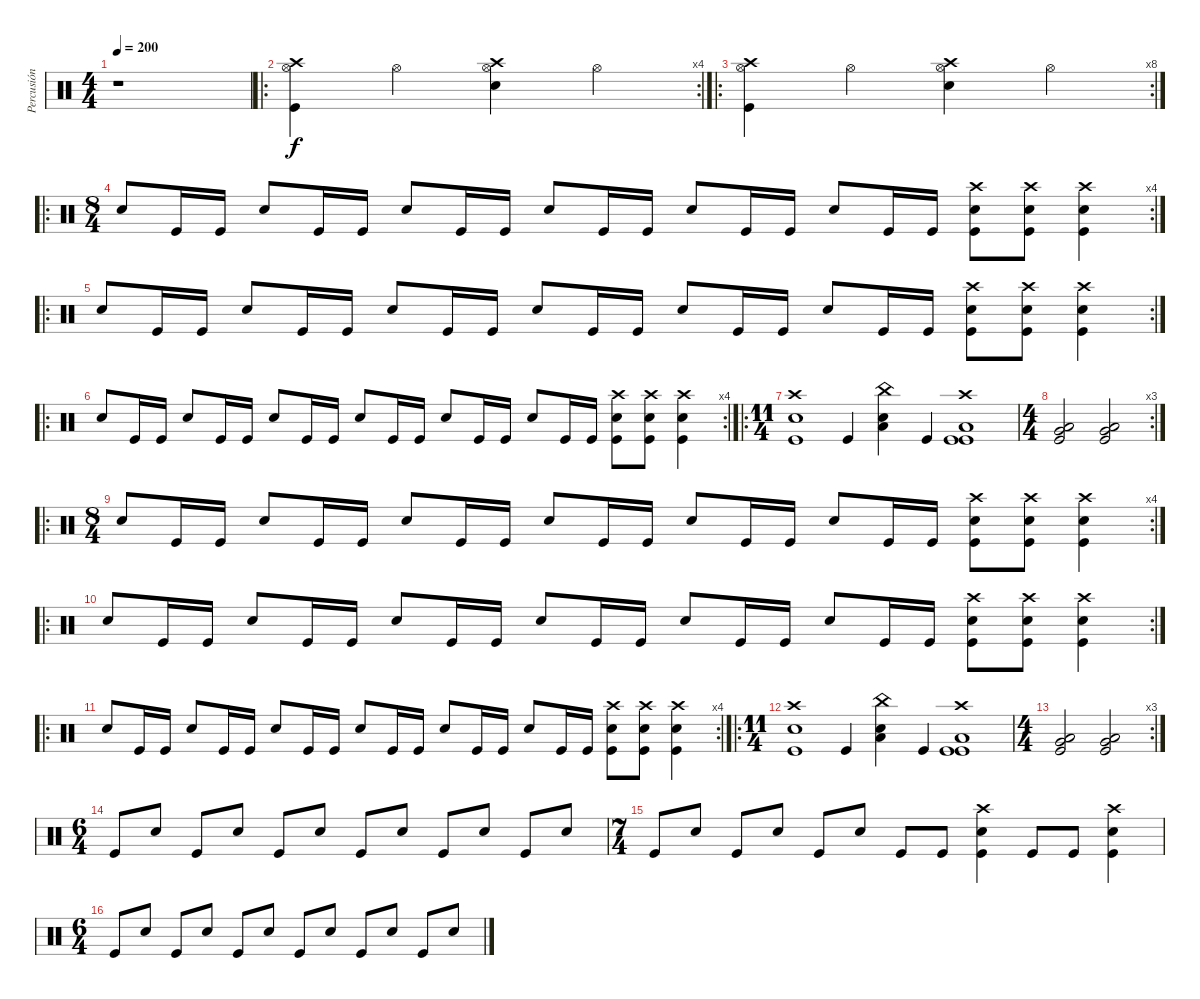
\track ("Percusión" "Percusión") {instrument percussion}
\staff {score}
\articulation defaults
\ts (4 4)
\tempo 200
\clef neutral
\ks c
r.1{dy f} |
\ro
\rc 4
("Crash high (hit)" "Hi-Hat (open)" "Kick (hit)").4 "Hi-Hat (open)".4 ("Crash high (hit)" "Hi-Hat (open)" "Snare (hit) 2").4 "Hi-Hat (open)".4 |
\ro
\rc 8
("Crash high (hit)" "Hi-Hat (open)" "Kick (hit)").4 "Hi-Hat (open)".4 ("Crash high (hit)" "Hi-Hat (open)" "Snare (hit) 2").4 "Hi-Hat (open)".4 |
\ro
\rc 4
\ts (8 4)
"Snare (hit) 2".8 "Kick (hit)".16 "Kick (hit)".16 "Snare (hit) 2".8 "Kick (hit)".16 "Kick (hit)".16 "Snare (hit) 2".8 "Kick (hit)".16 "Kick (hit)".16 "Snare (hit) 2".8 "Kick (hit)".16 "Kick (hit)".16 "Snare (hit) 2".8 "Kick (hit)".16 "Kick (hit)".16 "Snare (hit) 2".8 "Kick (hit)".16 "Kick (hit)".16 ("Crash high (hit)" "Snare (hit) 2" "Kick (hit)").8 ("Crash high (hit)" "Snare (hit) 2" "Kick (hit)").8 ("Crash high (hit)" "Snare (hit) 2" "Kick (hit)").4 |
\ro
\rc 2 "Snare (hit) 2".8 "Kick (hit)".16 "Kick (hit)".16 "Snare (hit) 2".8 "Kick (hit)".16 "Kick (hit)".16 "Snare (hit) 2".8 "Kick (hit)".16 "Kick (hit)".16 "Snare (hit) 2".8 "Kick (hit)".16 "Kick (hit)".16 "Snare (hit) 2".8 "Kick (hit)".16 "Kick (hit)".16 "Snare (hit) 2".8 "Kick (hit)".16 "Kick (hit)".16
("Crash high (hit)" "Snare (hit) 2" "Kick (hit)").8 ("Crash high (hit)" "Snare (hit) 2" "Kick (hit)").8 ("Crash high (hit)" "Snare (hit) 2" "Kick (hit)").4 |
\ro
\rc 4 "Snare (hit) 2".8 "Kick (hit)".16 "Kick (hit)".16 "Snare (hit) 2".8 "Kick (hit)".16 "Kick (hit)".16 "Snare (hit) 2".8 "Kick (hit)".16 "Kick (hit)".16 "Snare (hit) 2".8 "Kick (hit)".16 "Kick (hit)".16 "Snare (hit) 2".8 "Kick (hit)".16 "Kick (hit)".16 "Snare (hit) 2".8 "Kick (hit)".16 "Kick (hit)".16
("Crash high (hit)" "Snare (hit) 2" "Kick (hit)").8 ("Crash high (hit)" "Snare (hit) 2" "Kick (hit)").8 ("Crash high (hit)" "Snare (hit) 2" "Kick (hit)").4 |
\ro
\ts (11 4)
("Crash high (hit)" "Snare (hit) 2" "Kick (hit)").1 "Kick (hit)".4 ("China (hit)" "Snare (hit) 2" "Low Floor Tom (hit)").4 "Kick (hit)".4 ("Crash high (hit)" "Kick (hit)" "Low Floor Tom (hit)" "Kick (hit)").1 |
\rc 3
\ts (4 4)
("Very Low Tom (hit)" "Low Floor Tom (hit)" "Kick (hit)").2 ("Very Low Tom (hit)" "Low Floor Tom (hit)" "Kick (hit)").2 |
\ro
\rc 4
\ts (8 4)
"Snare (hit) 2".8 "Kick (hit)".16 "Kick (hit)".16 "Snare (hit) 2".8 "Kick (hit)".16 "Kick (hit)".16 "Snare (hit) 2".8 "Kick (hit)".16 "Kick (hit)".16 "Snare (hit) 2".8 "Kick (hit)".16 "Kick (hit)".16 "Snare (hit) 2".8 "Kick (hit)".16 "Kick (hit)".16 "Snare (hit) 2".8 "Kick (hit)".16 "Kick (hit)".16 ("Crash high (hit)" "Snare (hit) 2" "Kick (hit)").8 ("Crash high (hit)" "Snare (hit) 2" "Kick (hit)").8 ("Crash high (hit)" "Snare (hit) 2" "Kick (hit)").4 |
\ro
\rc 2 "Snare (hit) 2".8 "Kick (hit)".16 "Kick (hit)".16 "Snare (hit) 2".8 "Kick (hit)".16 "Kick (hit)".16 "Snare (hit) 2".8 "Kick (hit)".16 "Kick (hit)".16 "Snare (hit) 2".8 "Kick (hit)".16 "Kick (hit)".16 "Snare (hit) 2".8 "Kick (hit)".16 "Kick (hit)".16 "Snare (hit) 2".8 "Kick (hit)".16 "Kick (hit)".16
("Crash high (hit)" "Snare (hit) 2" "Kick (hit)").8 ("Crash high (hit)" "Snare (hit) 2" "Kick (hit)").8 ("Crash high (hit)" "Snare (hit) 2" "Kick (hit)").4 |
\ro
\rc 4 "Snare (hit) 2".8 "Kick (hit)".16 "Kick (hit)".16 "Snare (hit) 2".8 "Kick (hit)".16 "Kick (hit)".16 "Snare (hit) 2".8 "Kick (hit)".16 "Kick (hit)".16 "Snare (hit) 2".8 "Kick (hit)".16 "Kick (hit)".16 "Snare (hit) 2".8 "Kick (hit)".16 "Kick (hit)".16 "Snare (hit) 2".8 "Kick (hit)".16 "Kick (hit)".16
("Crash high (hit)" "Snare (hit) 2" "Kick (hit)").8 ("Crash high (hit)" "Snare (hit) 2" "Kick (hit)").8 ("Crash high (hit)" "Snare (hit) 2" "Kick (hit)").4 |
\ro
\ts (11 4)
("Crash high (hit)" "Snare (hit) 2" "Kick (hit)").1 "Kick (hit)".4 ("China (hit)" "Snare (hit) 2" "Low Floor Tom (hit)").4 "Kick (hit)".4 ("Crash high (hit)" "Kick (hit)" "Low Floor Tom (hit)" "Kick (hit)").1 |
\rc 3
\ts (4 4)
("Very Low Tom (hit)" "Low Floor Tom (hit)" "Kick (hit)").2 ("Very Low Tom (hit)" "Low Floor Tom (hit)" "Kick (hit)").2 |
\ts (6 4)
"Kick (hit)".8 "Snare (hit) 2".8 "Kick (hit)".8 "Snare (hit) 2".8 "Kick (hit)".8 "Snare (hit) 2".8 "Kick (hit)".8 "Snare (hit) 2".8 "Kick (hit)".8 "Snare (hit) 2".8 "Kick (hit)".8 "Snare (hit) 2".8 |
\ts (7 4)
"Kick (hit)".8 "Snare (hit) 2".8 "Kick (hit)".8 "Snare (hit) 2".8 "Kick (hit)".8 "Snare (hit) 2".8 "Kick (hit)".8 "Kick (hit)".8 ("Crash high (hit)" "Snare (hit) 2" "Kick (hit)").4 "Kick (hit)".8 "Kick (hit)".8 ("Crash high (hit)" "Snare (hit) 2" "Kick (hit)").4 |
\ts (6 4)
"Kick (hit)".8 "Snare (hit) 2".8 "Kick (hit)".8 "Snare (hit) 2".8 "Kick (hit)".8 "Snare (hit) 2".8 "Kick (hit)".8 "Snare (hit) 2".8 "Kick (hit)".8 "Snare (hit) 2".8 "Kick (hit)".8 "Snare (hit) 2".8
